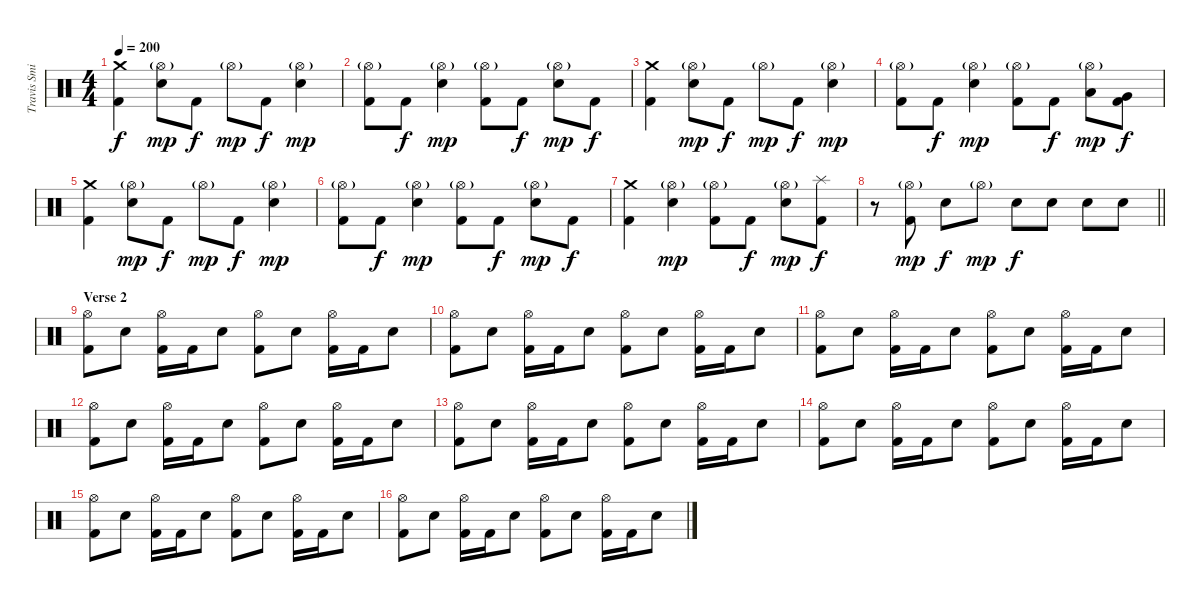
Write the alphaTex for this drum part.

\track ("Travis Smith" "Travis Smi") {instrument percussion}
\staff {score}
\articulation defaults
\ts (4 4)
\tempo 200
\clef neutral
\ks c
("Crash medium (hit)" "Kick (hit) 2").4{dy f} ("Hi-Hat (open)"{g} "Electric Snare (hit)").8{dy mp} "Kick (hit) 2".8{dy f} "Hi-Hat (open)"{g}.8{dy mp} "Kick (hit) 2".8{dy f} ("Hi-Hat (open)"{g} "Electric Snare (hit)").4{dy mp} |
("Hi-Hat (open)"{g} "Kick (hit) 2").8 "Kick (hit) 2".8{dy f} ("Hi-Hat (open)"{g} "Electric Snare (hit)").4{dy mp} ("Hi-Hat (open)"{g} "Kick (hit) 2").8 "Kick (hit) 2".8{dy f} ("Hi-Hat (open)"{g} "Electric Snare (hit)").8{dy mp} "Kick (hit) 2".8{dy f} |
("Crash medium (hit)" "Kick (hit) 2").4 ("Hi-Hat (open)"{g} "Electric Snare (hit)").8{dy mp} "Kick (hit) 2".8{dy f} "Hi-Hat (open)"{g}.8{dy mp} "Kick (hit) 2".8{dy f} ("Hi-Hat (open)"{g} "Electric Snare (hit)").4{dy mp} |
("Hi-Hat (open)"{g} "Kick (hit) 2").8 "Kick (hit) 2".8{dy f} ("Hi-Hat (open)"{g} "Electric Snare (hit)").4{dy mp} ("Hi-Hat (open)"{g} "Kick (hit) 2").8 "Kick (hit) 2".8{dy f} ("Hi-Hat (open)"{g} "Low Tom (hit)").8{dy mp} ("Very Low Tom (hit)" "Kick (hit) 2").8{dy f} |
("Crash medium (hit)" "Kick (hit) 2").4 ("Hi-Hat (open)"{g} "Electric Snare (hit)").8{dy mp} "Kick (hit) 2".8{dy f} "Hi-Hat (open)"{g}.8{dy mp} "Kick (hit) 2".8{dy f} ("Hi-Hat (open)"{g} "Electric Snare (hit)").4{dy mp} |
("Hi-Hat (open)"{g} "Kick (hit) 2").8 "Kick (hit) 2".8{dy f} ("Hi-Hat (open)"{g} "Electric Snare (hit)").4{dy mp} ("Hi-Hat (open)"{g} "Kick (hit) 2").8 "Kick (hit) 2".8{dy f} ("Hi-Hat (open)"{g} "Electric Snare (hit)").8{dy mp} "Kick (hit) 2".8{dy f} |
("Crash medium (hit)" "Kick (hit) 2").4 ("Hi-Hat (open)"{g} "Electric Snare (hit)").4{dy mp} ("Hi-Hat (open)"{g} "Kick (hit) 2").8 "Kick (hit) 2".8{dy f} ("Hi-Hat (open)"{g} "Electric Snare (hit)").8{dy mp} ("Splash (hit)" "Kick (hit) 2").8{dy f} |
\barLineRight lightlight
r.8 ("Hi-Hat (open)"{g} "Kick (hit) 2").8{dy mp} "Electric Snare (hit)".8{dy f} "Hi-Hat (open)"{g}.8{dy mp} "Electric Snare (hit)".8{dy f} "Electric Snare (hit)".8 "Electric Snare (hit)".8 "Electric Snare (hit)".8 |
\section ("" "Verse 2")
("Hi-Hat (open)" "Kick (hit) 2").8 "Electric Snare (hit)".8 ("Hi-Hat (open)" "Kick (hit) 2").16 "Kick (hit) 2".16 "Electric Snare (hit)".8 ("Hi-Hat (open)" "Kick (hit) 2").8 "Electric Snare (hit)".8 ("Hi-Hat (open)" "Kick (hit) 2").16 "Kick (hit) 2".16 "Electric Snare (hit)".8 |
("Hi-Hat (open)" "Kick (hit) 2").8 "Electric Snare (hit)".8 ("Hi-Hat (open)" "Kick (hit) 2").16 "Kick (hit) 2".16 "Electric Snare (hit)".8 ("Hi-Hat (open)" "Kick (hit) 2").8 "Electric Snare (hit)".8 ("Hi-Hat (open)" "Kick (hit) 2").16 "Kick (hit) 2".16 "Electric Snare (hit)".8 |
("Hi-Hat (open)" "Kick (hit) 2").8 "Electric Snare (hit)".8 ("Hi-Hat (open)" "Kick (hit) 2").16 "Kick (hit) 2".16 "Electric Snare (hit)".8 ("Hi-Hat (open)" "Kick (hit) 2").8 "Electric Snare (hit)".8 ("Hi-Hat (open)" "Kick (hit) 2").16 "Kick (hit) 2".16 "Electric Snare (hit)".8 |
("Hi-Hat (open)" "Kick (hit) 2").8 "Electric Snare (hit)".8 ("Hi-Hat (open)" "Kick (hit) 2").16 "Kick (hit) 2".16 "Electric Snare (hit)".8 ("Hi-Hat (open)" "Kick (hit) 2").8 "Electric Snare (hit)".8 ("Hi-Hat (open)" "Kick (hit) 2").16 "Kick (hit) 2".16 "Electric Snare (hit)".8 |
("Hi-Hat (open)" "Kick (hit) 2").8 "Electric Snare (hit)".8 ("Hi-Hat (open)" "Kick (hit) 2").16 "Kick (hit) 2".16 "Electric Snare (hit)".8 ("Hi-Hat (open)" "Kick (hit) 2").8 "Electric Snare (hit)".8 ("Hi-Hat (open)" "Kick (hit) 2").16 "Kick (hit) 2".16 "Electric Snare (hit)".8 |
("Hi-Hat (open)" "Kick (hit) 2").8 "Electric Snare (hit)".8 ("Hi-Hat (open)" "Kick (hit) 2").16 "Kick (hit) 2".16 "Electric Snare (hit)".8 ("Hi-Hat (open)" "Kick (hit) 2").8 "Electric Snare (hit)".8 ("Hi-Hat (open)" "Kick (hit) 2").16 "Kick (hit) 2".16 "Electric Snare (hit)".8 |
("Hi-Hat (open)" "Kick (hit) 2").8 "Electric Snare (hit)".8 ("Hi-Hat (open)" "Kick (hit) 2").16 "Kick (hit) 2".16 "Electric Snare (hit)".8 ("Hi-Hat (open)" "Kick (hit) 2").8 "Electric Snare (hit)".8 ("Hi-Hat (open)" "Kick (hit) 2").16 "Kick (hit) 2".16 "Electric Snare (hit)".8 |
("Hi-Hat (open)" "Kick (hit) 2").8 "Electric Snare (hit)".8 ("Hi-Hat (open)" "Kick (hit) 2").16 "Kick (hit) 2".16 "Electric Snare (hit)".8 ("Hi-Hat (open)" "Kick (hit) 2").8 "Electric Snare (hit)".8 ("Hi-Hat (open)" "Kick (hit) 2").16 "Kick (hit) 2".16 "Electric Snare (hit)".8
